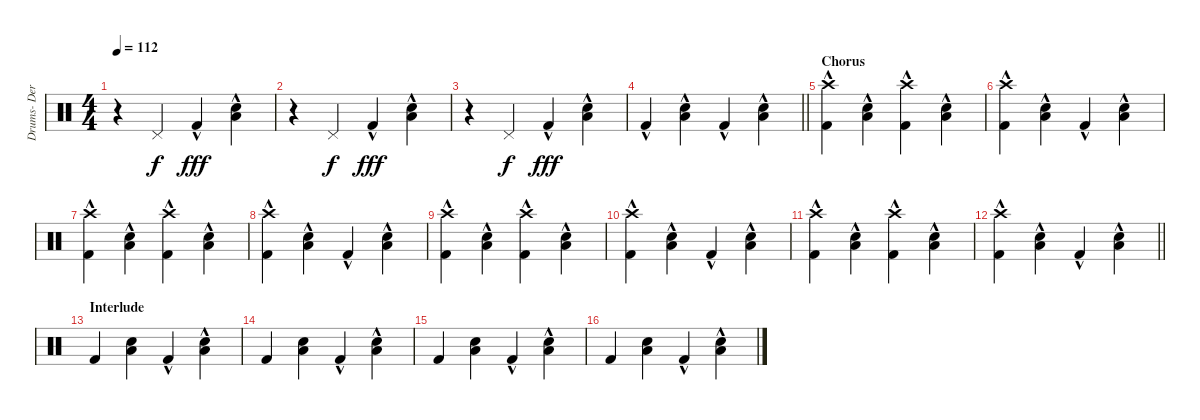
\track ("Drums- Derek Grant" "Drums- Der") {instrument percussion}
\staff {score}
\articulation defaults
\ts (4 4)
\tempo 112
\clef neutral
\ks c
r.4{dy fff} "Pedal Hi-Hat (hit)".4{dy f} "Kick (hit) 2"{hac}.4{dy fff} ("Low Tom (hit)"{hac} "Snare (hit) 2").4 |
r.4 "Pedal Hi-Hat (hit)".4{dy f} "Kick (hit) 2"{hac}.4{dy fff} ("Low Tom (hit)"{hac} "Snare (hit) 2"{hac}).4 |
r.4 "Pedal Hi-Hat (hit)".4{dy f} "Kick (hit) 2"{hac}.4{dy fff} ("Low Tom (hit)"{hac} "Snare (hit) 2"{hac}).4 |
\barLineRight lightlight "Kick (hit) 2"{hac}.4
("Low Tom (hit)"{hac} "Snare (hit) 2"{hac}).4 "Kick (hit) 2"{hac}.4 ("Low Tom (hit)"{hac} "Snare (hit) 2"{hac}).4 |
\section ("" "Chorus")
("Crash high (hit)" "Kick (hit) 2"{hac}).4 ("Low Tom (hit)"{hac} "Snare (hit) 2"{hac}).4 ("Crash high (hit)" "Kick (hit) 2"{hac}).4 ("Low Tom (hit)"{hac} "Snare (hit) 2"{hac}).4 |
("Crash high (hit)" "Kick (hit) 2"{hac}).4 ("Low Tom (hit)"{hac} "Snare (hit) 2"{hac}).4 "Kick (hit) 2"{hac}.4 ("Low Tom (hit)"{hac} "Snare (hit) 2"{hac}).4 |
("Crash high (hit)" "Kick (hit) 2"{hac}).4 ("Low Tom (hit)"{hac} "Snare (hit) 2"{hac}).4 ("Crash high (hit)" "Kick (hit) 2"{hac}).4 ("Low Tom (hit)"{hac} "Snare (hit) 2"{hac}).4 |
("Crash high (hit)" "Kick (hit) 2"{hac}).4 ("Low Tom (hit)"{hac} "Snare (hit) 2"{hac}).4 "Kick (hit) 2"{hac}.4 ("Low Tom (hit)"{hac} "Snare (hit) 2"{hac}).4 |
("Crash high (hit)" "Kick (hit) 2"{hac}).4 ("Low Tom (hit)"{hac} "Snare (hit) 2"{hac}).4 ("Crash high (hit)" "Kick (hit) 2"{hac}).4 ("Low Tom (hit)"{hac} "Snare (hit) 2"{hac}).4 |
("Crash high (hit)" "Kick (hit) 2"{hac}).4 ("Low Tom (hit)"{hac} "Snare (hit) 2"{hac}).4 "Kick (hit) 2"{hac}.4 ("Low Tom (hit)"{hac} "Snare (hit) 2"{hac}).4 |
("Crash high (hit)" "Kick (hit) 2"{hac}).4 ("Low Tom (hit)"{hac} "Snare (hit) 2"{hac}).4 ("Crash high (hit)" "Kick (hit) 2"{hac}).4 ("Low Tom (hit)"{hac} "Snare (hit) 2"{hac}).4 |
\barLineRight lightlight
("Crash high (hit)" "Kick (hit) 2"{hac}).4 ("Low Tom (hit)"{hac} "Snare (hit) 2"{hac}).4 "Kick (hit) 2"{hac}.4 ("Low Tom (hit)"{hac} "Snare (hit) 2"{hac}).4 |
\section ("" "Interlude")
"Kick (hit) 2".4 ("Low Tom (hit)" "Snare (hit) 2").4 "Kick (hit) 2"{hac}.4 ("Low Tom (hit)"{hac} "Snare (hit) 2").4 |
"Kick (hit) 2".4 ("Low Tom (hit)" "Snare (hit) 2").4 "Kick (hit) 2"{hac}.4 ("Low Tom (hit)"{hac} "Snare (hit) 2"{hac}).4 |
"Kick (hit) 2".4 ("Low Tom (hit)" "Snare (hit) 2").4 "Kick (hit) 2"{hac}.4 ("Low Tom (hit)"{hac} "Snare (hit) 2").4 |
"Kick (hit) 2".4 ("Low Tom (hit)" "Snare (hit) 2").4 "Kick (hit) 2"{hac}.4 ("Low Tom (hit)"{hac} "Snare (hit) 2"{hac}).4
